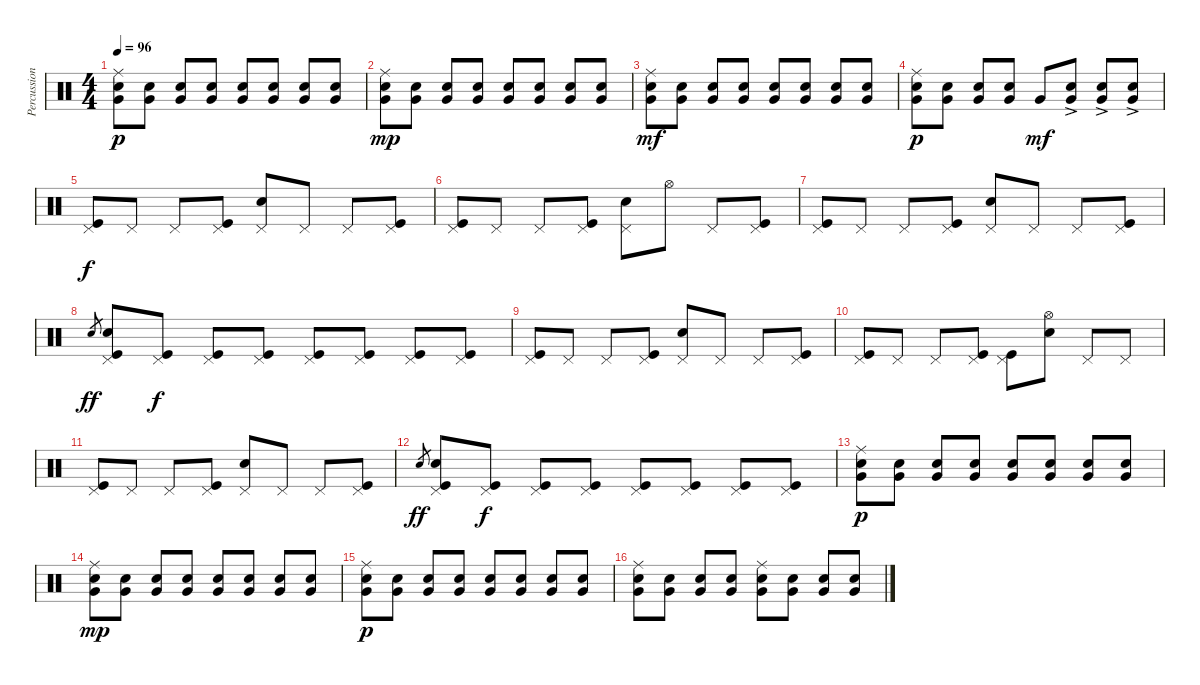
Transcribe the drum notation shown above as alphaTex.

\track ("Percussions" "Percussion") {instrument percussion}
\staff {score}
\articulation defaults
\ts (4 4)
\tempo 96
\clef neutral
\ks c
("Ride (middle)" "Snare (hit) 2" "Very Low Tom (hit)").8{dy p} ("Snare (hit) 2" "Very Low Tom (hit)").8 ("Snare (hit) 2" "Very Low Tom (hit)").8 ("Snare (hit) 2" "Very Low Tom (hit)").8 ("Snare (hit) 2" "Very Low Tom (hit)").8 ("Snare (hit) 2" "Very Low Tom (hit)").8 ("Snare (hit) 2" "Very Low Tom (hit)").8 ("Snare (hit) 2" "Very Low Tom (hit)").8 |
("Ride (middle)" "Snare (hit) 2" "Very Low Tom (hit)").8{dy mp} ("Snare (hit) 2" "Very Low Tom (hit)").8 ("Snare (hit) 2" "Very Low Tom (hit)").8 ("Snare (hit) 2" "Very Low Tom (hit)").8 ("Snare (hit) 2" "Very Low Tom (hit)").8 ("Snare (hit) 2" "Very Low Tom (hit)").8 ("Snare (hit) 2" "Very Low Tom (hit)").8 ("Snare (hit) 2" "Very Low Tom (hit)").8 |
("Ride (middle)" "Snare (hit) 2" "Very Low Tom (hit)").8{dy mf} ("Snare (hit) 2" "Very Low Tom (hit)").8 ("Snare (hit) 2" "Very Low Tom (hit)").8 ("Snare (hit) 2" "Very Low Tom (hit)").8 ("Snare (hit) 2" "Very Low Tom (hit)").8 ("Snare (hit) 2" "Very Low Tom (hit)").8 ("Snare (hit) 2" "Very Low Tom (hit)").8 ("Snare (hit) 2" "Very Low Tom (hit)").8 |
("Ride (middle)" "Snare (hit) 2" "Very Low Tom (hit)").8{dy p} ("Snare (hit) 2" "Very Low Tom (hit)").8 ("Snare (hit) 2" "Very Low Tom (hit)").8 ("Snare (hit) 2" "Very Low Tom (hit)").8 "Very Low Tom (hit)".8{dy mf} ("Electric Snare (hit)"{ac} "Very Low Tom (hit)").8 ("Electric Snare (hit)"{ac} "Very Low Tom (hit)").8 ("Electric Snare (hit)"{ac} "Very Low Tom (hit)").8 |
("Pedal Hi-Hat (hit)" "Kick (hit)").8{dy f} "Pedal Hi-Hat (hit)".8 "Pedal Hi-Hat (hit)".8 ("Pedal Hi-Hat (hit)" "Kick (hit)").8 ("Pedal Hi-Hat (hit)" "Electric Snare (hit)").8 "Pedal Hi-Hat (hit)".8 "Pedal Hi-Hat (hit)".8 ("Pedal Hi-Hat (hit)" "Kick (hit)").8 |
("Pedal Hi-Hat (hit)" "Kick (hit)").8 "Pedal Hi-Hat (hit)".8 "Pedal Hi-Hat (hit)".8 ("Pedal Hi-Hat (hit)" "Kick (hit)").8 ("Pedal Hi-Hat (hit)" "Electric Snare (hit)").8 "Hi-Hat (open)".8 "Pedal Hi-Hat (hit)".8 ("Pedal Hi-Hat (hit)" "Kick (hit)").8 |
("Pedal Hi-Hat (hit)" "Kick (hit)").8 "Pedal Hi-Hat (hit)".8 "Pedal Hi-Hat (hit)".8 ("Pedal Hi-Hat (hit)" "Kick (hit)").8 ("Pedal Hi-Hat (hit)" "Electric Snare (hit)").8 "Pedal Hi-Hat (hit)".8 "Pedal Hi-Hat (hit)".8 ("Pedal Hi-Hat (hit)" "Kick (hit)").8 |
"Electric Snare (hit)".8{gr dy ff} ("Pedal Hi-Hat (hit)" "Electric Snare (hit)" "Kick (hit)").8 ("Pedal Hi-Hat (hit)" "Kick (hit)").8{dy f} ("Pedal Hi-Hat (hit)" "Kick (hit)").8 ("Pedal Hi-Hat (hit)" "Kick (hit)").8 ("Pedal Hi-Hat (hit)" "Kick (hit)").8 ("Pedal Hi-Hat (hit)" "Kick (hit)").8 ("Pedal Hi-Hat (hit)" "Kick (hit)").8 ("Pedal Hi-Hat (hit)" "Kick (hit)").8 |
("Pedal Hi-Hat (hit)" "Kick (hit)").8 "Pedal Hi-Hat (hit)".8 "Pedal Hi-Hat (hit)".8 ("Pedal Hi-Hat (hit)" "Kick (hit)").8 ("Pedal Hi-Hat (hit)" "Electric Snare (hit)").8 "Pedal Hi-Hat (hit)".8 "Pedal Hi-Hat (hit)".8 ("Pedal Hi-Hat (hit)" "Kick (hit)").8 |
("Pedal Hi-Hat (hit)" "Kick (hit)").8 "Pedal Hi-Hat (hit)".8 "Pedal Hi-Hat (hit)".8 ("Pedal Hi-Hat (hit)" "Kick (hit)").8 ("Pedal Hi-Hat (hit)" "Kick (hit)").8 ("Hi-Hat (open)" "Electric Snare (hit)").8 "Pedal Hi-Hat (hit)".8 "Pedal Hi-Hat (hit)".8 |
("Pedal Hi-Hat (hit)" "Kick (hit)").8 "Pedal Hi-Hat (hit)".8 "Pedal Hi-Hat (hit)".8 ("Pedal Hi-Hat (hit)" "Kick (hit)").8 ("Pedal Hi-Hat (hit)" "Electric Snare (hit)").8 "Pedal Hi-Hat (hit)".8 "Pedal Hi-Hat (hit)".8 ("Pedal Hi-Hat (hit)" "Kick (hit)").8 |
"Electric Snare (hit)".8{gr dy ff} ("Pedal Hi-Hat (hit)" "Electric Snare (hit)" "Kick (hit)").8 ("Pedal Hi-Hat (hit)" "Kick (hit)").8{dy f} ("Pedal Hi-Hat (hit)" "Kick (hit)").8 ("Pedal Hi-Hat (hit)" "Kick (hit)").8 ("Pedal Hi-Hat (hit)" "Kick (hit)").8 ("Pedal Hi-Hat (hit)" "Kick (hit)").8 ("Pedal Hi-Hat (hit)" "Kick (hit)").8 ("Pedal Hi-Hat (hit)" "Kick (hit)").8 |
("Ride (middle)" "Snare (hit) 2" "Very Low Tom (hit)").8{dy p} ("Snare (hit) 2" "Very Low Tom (hit)").8 ("Snare (hit) 2" "Very Low Tom (hit)").8 ("Snare (hit) 2" "Very Low Tom (hit)").8 ("Snare (hit) 2" "Very Low Tom (hit)").8 ("Snare (hit) 2" "Very Low Tom (hit)").8 ("Snare (hit) 2" "Very Low Tom (hit)").8 ("Snare (hit) 2" "Very Low Tom (hit)").8 |
("Ride (middle)" "Snare (hit) 2" "Very Low Tom (hit)").8{dy mp} ("Snare (hit) 2" "Very Low Tom (hit)").8 ("Snare (hit) 2" "Very Low Tom (hit)").8 ("Snare (hit) 2" "Very Low Tom (hit)").8 ("Snare (hit) 2" "Very Low Tom (hit)").8 ("Snare (hit) 2" "Very Low Tom (hit)").8 ("Snare (hit) 2" "Very Low Tom (hit)").8 ("Snare (hit) 2" "Very Low Tom (hit)").8 |
("Ride (middle)" "Snare (hit) 2" "Very Low Tom (hit)").8{dy p} ("Snare (hit) 2" "Very Low Tom (hit)").8 ("Snare (hit) 2" "Very Low Tom (hit)").8 ("Snare (hit) 2" "Very Low Tom (hit)").8 ("Snare (hit) 2" "Very Low Tom (hit)").8 ("Snare (hit) 2" "Very Low Tom (hit)").8 ("Snare (hit) 2" "Very Low Tom (hit)").8 ("Snare (hit) 2" "Very Low Tom (hit)").8 |
("Ride (middle)" "Snare (hit) 2" "Very Low Tom (hit)").8 ("Snare (hit) 2" "Very Low Tom (hit)").8 ("Snare (hit) 2" "Very Low Tom (hit)").8 ("Snare (hit) 2" "Very Low Tom (hit)").8 ("Ride (middle)" "Snare (hit) 2" "Very Low Tom (hit)").8 ("Snare (hit) 2" "Very Low Tom (hit)").8 ("Snare (hit) 2" "Very Low Tom (hit)").8 ("Snare (hit) 2" "Very Low Tom (hit)").8
